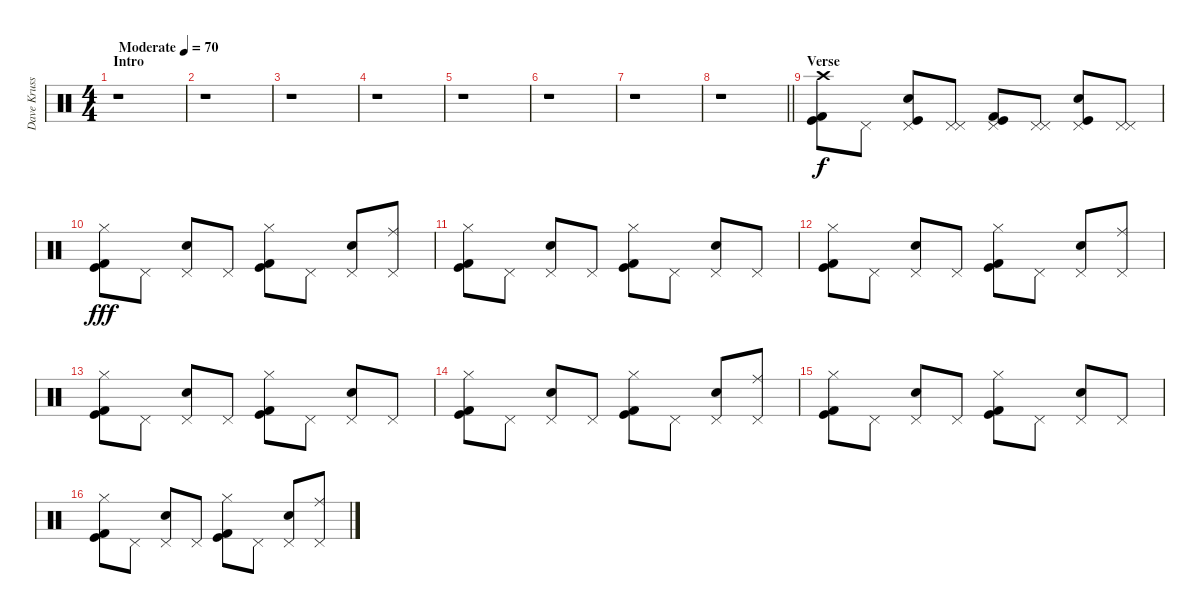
\track ("Dave Krussen" "Dave Kruss") {instrument percussion}
\staff {score}
\articulation defaults
\ts (4 4)
\section ("" "Intro")
\tempo (70 "Moderate")
\clef neutral
\ks c
r.1{dy f} |
r.1 |
r.1 |
r.1 |
r.1 |
r.1 |
r.1 |
\barLineRight lightlight
r.1 |
\section ("" "Verse")
("Crash high (hit)" "Kick (hit)" "Kick (hit) 2").8 "Pedal Hi-Hat (hit)".8 ("Pedal Hi-Hat (hit)" "Electric Snare (hit)" "Kick (hit)").8 ("Pedal Hi-Hat (hit)" "Pedal Hi-Hat (hit)").8 ("Pedal Hi-Hat (hit)" "Kick (hit)" "Kick (hit) 2").8 ("Pedal Hi-Hat (hit)" "Pedal Hi-Hat (hit)").8 ("Pedal Hi-Hat (hit)" "Electric Snare (hit)" "Kick (hit)").8 ("Pedal Hi-Hat (hit)" "Pedal Hi-Hat (hit)").8 |
("Kick (hit)" "Hi-Hat (closed)" "Kick (hit) 2").8{dy fff} "Pedal Hi-Hat (hit)".8 ("Electric Snare (hit)" "Pedal Hi-Hat (hit)").8 "Pedal Hi-Hat (hit)".8 ("Kick (hit)" "Hi-Hat (closed)" "Kick (hit) 2").8 "Pedal Hi-Hat (hit)".8 ("Electric Snare (hit)" "Pedal Hi-Hat (hit)").8 ("Ride (middle)" "Pedal Hi-Hat (hit)").8 |
("Kick (hit)" "Hi-Hat (closed)" "Kick (hit) 2").8 "Pedal Hi-Hat (hit)".8 ("Electric Snare (hit)" "Pedal Hi-Hat (hit)").8 "Pedal Hi-Hat (hit)".8 ("Kick (hit)" "Hi-Hat (closed)" "Kick (hit) 2").8 "Pedal Hi-Hat (hit)".8 ("Electric Snare (hit)" "Pedal Hi-Hat (hit)").8 "Pedal Hi-Hat (hit)".8 |
("Kick (hit)" "Hi-Hat (closed)" "Kick (hit) 2").8 "Pedal Hi-Hat (hit)".8 ("Electric Snare (hit)" "Pedal Hi-Hat (hit)").8 "Pedal Hi-Hat (hit)".8 ("Kick (hit)" "Hi-Hat (closed)" "Kick (hit) 2").8 "Pedal Hi-Hat (hit)".8 ("Electric Snare (hit)" "Pedal Hi-Hat (hit)").8 ("Ride (middle)" "Pedal Hi-Hat (hit)").8 |
("Kick (hit)" "Hi-Hat (closed)" "Kick (hit) 2").8 "Pedal Hi-Hat (hit)".8 ("Electric Snare (hit)" "Pedal Hi-Hat (hit)").8 "Pedal Hi-Hat (hit)".8 ("Kick (hit)" "Hi-Hat (closed)" "Kick (hit) 2").8 "Pedal Hi-Hat (hit)".8 ("Electric Snare (hit)" "Pedal Hi-Hat (hit)").8 "Pedal Hi-Hat (hit)".8 |
("Kick (hit)" "Hi-Hat (closed)" "Kick (hit) 2").8 "Pedal Hi-Hat (hit)".8 ("Electric Snare (hit)" "Pedal Hi-Hat (hit)").8 "Pedal Hi-Hat (hit)".8 ("Kick (hit)" "Hi-Hat (closed)" "Kick (hit) 2").8 "Pedal Hi-Hat (hit)".8 ("Electric Snare (hit)" "Pedal Hi-Hat (hit)").8 ("Ride (middle)" "Pedal Hi-Hat (hit)").8 |
("Kick (hit)" "Hi-Hat (closed)" "Kick (hit) 2").8 "Pedal Hi-Hat (hit)".8 ("Electric Snare (hit)" "Pedal Hi-Hat (hit)").8 "Pedal Hi-Hat (hit)".8 ("Kick (hit)" "Hi-Hat (closed)" "Kick (hit) 2").8 "Pedal Hi-Hat (hit)".8 ("Electric Snare (hit)" "Pedal Hi-Hat (hit)").8 "Pedal Hi-Hat (hit)".8 |
("Kick (hit)" "Hi-Hat (closed)" "Kick (hit) 2").8 "Pedal Hi-Hat (hit)".8 ("Electric Snare (hit)" "Pedal Hi-Hat (hit)").8 "Pedal Hi-Hat (hit)".8 ("Kick (hit)" "Hi-Hat (closed)" "Kick (hit) 2").8 "Pedal Hi-Hat (hit)".8 ("Electric Snare (hit)" "Pedal Hi-Hat (hit)").8 ("Ride (middle)" "Pedal Hi-Hat (hit)").8
